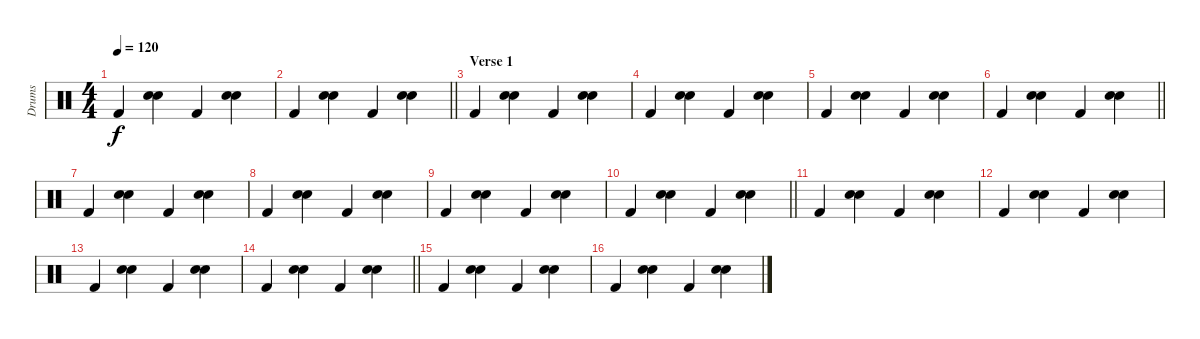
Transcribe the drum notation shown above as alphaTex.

\track ("Drums" "Drums") {instrument percussion}
\staff {score}
\articulation defaults
\ts (4 4)
\tempo 120
\clef neutral
\ks c "Kick (hit) 2".4{dy f}
("Electric Snare (hit)" "Snare (hit) 2").4 "Kick (hit) 2".4 ("Electric Snare (hit)" "Snare (hit) 2").4 |
\barLineRight lightlight "Kick (hit) 2".4
("Electric Snare (hit)" "Snare (hit) 2").4 "Kick (hit) 2".4 ("Electric Snare (hit)" "Snare (hit) 2").4 |
\section ("" "Verse 1")
"Kick (hit) 2".4 ("Electric Snare (hit)" "Snare (hit) 2").4 "Kick (hit) 2".4 ("Electric Snare (hit)" "Snare (hit) 2").4 |
"Kick (hit) 2".4 ("Electric Snare (hit)" "Snare (hit) 2").4 "Kick (hit) 2".4 ("Electric Snare (hit)" "Snare (hit) 2").4 |
"Kick (hit) 2".4 ("Electric Snare (hit)" "Snare (hit) 2").4 "Kick (hit) 2".4 ("Electric Snare (hit)" "Snare (hit) 2").4 |
\barLineRight lightlight "Kick (hit) 2".4
("Electric Snare (hit)" "Snare (hit) 2").4 "Kick (hit) 2".4 ("Electric Snare (hit)" "Snare (hit) 2").4 |
"Kick (hit) 2".4 ("Electric Snare (hit)" "Snare (hit) 2").4 "Kick (hit) 2".4 ("Electric Snare (hit)" "Snare (hit) 2").4 |
"Kick (hit) 2".4 ("Electric Snare (hit)" "Snare (hit) 2").4 "Kick (hit) 2".4 ("Electric Snare (hit)" "Snare (hit) 2").4 |
"Kick (hit) 2".4 ("Electric Snare (hit)" "Snare (hit) 2").4 "Kick (hit) 2".4 ("Electric Snare (hit)" "Snare (hit) 2").4 |
\barLineRight lightlight "Kick (hit) 2".4
("Electric Snare (hit)" "Snare (hit) 2").4 "Kick (hit) 2".4 ("Electric Snare (hit)" "Snare (hit) 2").4 |
"Kick (hit) 2".4 ("Electric Snare (hit)" "Snare (hit) 2").4 "Kick (hit) 2".4 ("Electric Snare (hit)" "Snare (hit) 2").4 |
"Kick (hit) 2".4 ("Electric Snare (hit)" "Snare (hit) 2").4 "Kick (hit) 2".4 ("Electric Snare (hit)" "Snare (hit) 2").4 |
"Kick (hit) 2".4 ("Electric Snare (hit)" "Snare (hit) 2").4 "Kick (hit) 2".4 ("Electric Snare (hit)" "Snare (hit) 2").4 |
\barLineRight lightlight "Kick (hit) 2".4
("Electric Snare (hit)" "Snare (hit) 2").4 "Kick (hit) 2".4 ("Electric Snare (hit)" "Snare (hit) 2").4 |
"Kick (hit) 2".4 ("Electric Snare (hit)" "Snare (hit) 2").4 "Kick (hit) 2".4 ("Electric Snare (hit)" "Snare (hit) 2").4 |
"Kick (hit) 2".4 ("Electric Snare (hit)" "Snare (hit) 2").4 "Kick (hit) 2".4 ("Electric Snare (hit)" "Snare (hit) 2").4
